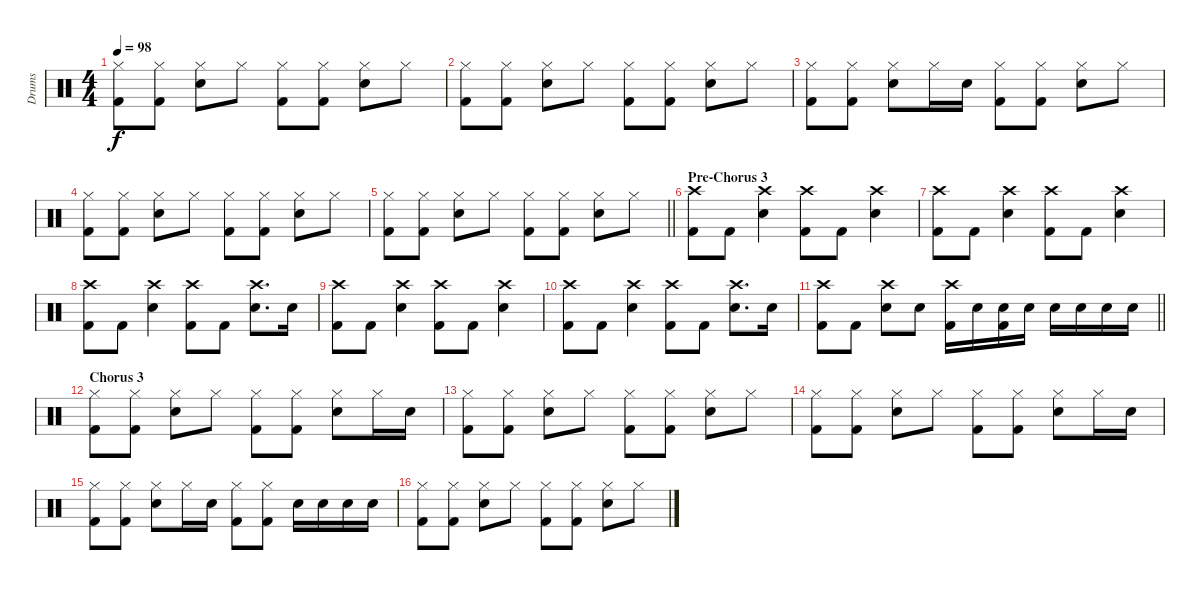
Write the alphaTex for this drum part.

\track ("Drums" "Drums") {instrument percussion}
\staff {score}
\articulation defaults
\ts (4 4)
\tempo 98
\clef neutral
\ks c
("Hi-Hat (closed)" "Kick (hit) 2").8{dy f} ("Hi-Hat (closed)" "Kick (hit) 2").8 ("Hi-Hat (closed)" "Electric Snare (hit)").8 "Hi-Hat (closed)".8 ("Hi-Hat (closed)" "Kick (hit) 2").8 ("Hi-Hat (closed)" "Kick (hit) 2").8 ("Hi-Hat (closed)" "Electric Snare (hit)").8 "Hi-Hat (closed)".8 |
("Hi-Hat (closed)" "Kick (hit) 2").8 ("Hi-Hat (closed)" "Kick (hit) 2").8 ("Hi-Hat (closed)" "Electric Snare (hit)").8 "Hi-Hat (closed)".8 ("Hi-Hat (closed)" "Kick (hit) 2").8 ("Hi-Hat (closed)" "Kick (hit) 2").8 ("Hi-Hat (closed)" "Electric Snare (hit)").8 "Hi-Hat (closed)".8 |
("Hi-Hat (closed)" "Kick (hit) 2").8 ("Hi-Hat (closed)" "Kick (hit) 2").8 ("Hi-Hat (closed)" "Electric Snare (hit)").8 "Hi-Hat (closed)".16 "Electric Snare (hit)".16 ("Hi-Hat (closed)" "Kick (hit) 2").8 ("Hi-Hat (closed)" "Kick (hit) 2").8 ("Hi-Hat (closed)" "Electric Snare (hit)").8 "Hi-Hat (closed)".8 |
("Hi-Hat (closed)" "Kick (hit) 2").8 ("Hi-Hat (closed)" "Kick (hit) 2").8 ("Hi-Hat (closed)" "Electric Snare (hit)").8 "Hi-Hat (closed)".8 ("Hi-Hat (closed)" "Kick (hit) 2").8 ("Hi-Hat (closed)" "Kick (hit) 2").8 ("Hi-Hat (closed)" "Electric Snare (hit)").8 "Hi-Hat (closed)".8 |
\barLineRight lightlight
("Hi-Hat (closed)" "Kick (hit) 2").8 ("Hi-Hat (closed)" "Kick (hit) 2").8 ("Hi-Hat (closed)" "Electric Snare (hit)").8 "Hi-Hat (closed)".8 ("Hi-Hat (closed)" "Kick (hit) 2").8 ("Hi-Hat (closed)" "Kick (hit) 2").8 ("Hi-Hat (closed)" "Electric Snare (hit)").8 "Hi-Hat (closed)".8 |
\section ("" "Pre-Chorus 3")
("Crash high (hit)" "Kick (hit) 2").8 "Kick (hit) 2".8 ("Crash high (hit)" "Electric Snare (hit)").4 ("Crash high (hit)" "Kick (hit) 2").8 "Kick (hit) 2".8 ("Crash high (hit)" "Electric Snare (hit)").4 |
("Crash high (hit)" "Kick (hit) 2").8 "Kick (hit) 2".8 ("Crash high (hit)" "Electric Snare (hit)").4 ("Crash high (hit)" "Kick (hit) 2").8 "Kick (hit) 2".8 ("Crash high (hit)" "Electric Snare (hit)").4 |
("Crash high (hit)" "Kick (hit) 2").8 "Kick (hit) 2".8 ("Crash high (hit)" "Electric Snare (hit)").4 ("Crash high (hit)" "Kick (hit) 2").8 "Kick (hit) 2".8 ("Crash high (hit)" "Electric Snare (hit)").8{d} "Electric Snare (hit)".16 |
("Crash high (hit)" "Kick (hit) 2").8 "Kick (hit) 2".8 ("Crash high (hit)" "Electric Snare (hit)").4 ("Crash high (hit)" "Kick (hit) 2").8 "Kick (hit) 2".8 ("Crash high (hit)" "Electric Snare (hit)").4 |
("Crash high (hit)" "Kick (hit) 2").8 "Kick (hit) 2".8 ("Crash high (hit)" "Electric Snare (hit)").4 ("Crash high (hit)" "Kick (hit) 2").8 "Kick (hit) 2".8 ("Crash high (hit)" "Electric Snare (hit)").8{d} "Electric Snare (hit)".16 |
\barLineRight lightlight
("Crash high (hit)" "Kick (hit) 2").8 "Kick (hit) 2".8 ("Crash high (hit)" "Electric Snare (hit)").8 "Electric Snare (hit)".8 ("Crash high (hit)" "Kick (hit) 2").16 "Electric Snare (hit)".16 ("Electric Snare (hit)" "Kick (hit) 2").16 "Electric Snare (hit)".16 "Electric Snare (hit)".16 "Electric Snare (hit)".16 "Electric Snare (hit)".16 "Electric Snare (hit)".16 |
\section ("" "Chorus 3")
("Hi-Hat (closed)" "Kick (hit) 2").8 ("Hi-Hat (closed)" "Kick (hit) 2").8 ("Hi-Hat (closed)" "Electric Snare (hit)").8 "Hi-Hat (closed)".8 ("Hi-Hat (closed)" "Kick (hit) 2").8 ("Hi-Hat (closed)" "Kick (hit) 2").8 ("Hi-Hat (closed)" "Electric Snare (hit)").8 "Hi-Hat (closed)".16 "Electric Snare (hit)".16 |
("Hi-Hat (closed)" "Kick (hit) 2").8 ("Hi-Hat (closed)" "Kick (hit) 2").8 ("Hi-Hat (closed)" "Electric Snare (hit)").8 "Hi-Hat (closed)".8 ("Hi-Hat (closed)" "Kick (hit) 2").8 ("Hi-Hat (closed)" "Kick (hit) 2").8 ("Hi-Hat (closed)" "Electric Snare (hit)").8 "Hi-Hat (closed)".8 |
("Hi-Hat (closed)" "Kick (hit) 2").8 ("Hi-Hat (closed)" "Kick (hit) 2").8 ("Hi-Hat (closed)" "Electric Snare (hit)").8 "Hi-Hat (closed)".8 ("Hi-Hat (closed)" "Kick (hit) 2").8 ("Hi-Hat (closed)" "Kick (hit) 2").8 ("Hi-Hat (closed)" "Electric Snare (hit)").8 "Hi-Hat (closed)".16 "Electric Snare (hit)".16 |
("Hi-Hat (closed)" "Kick (hit) 2").8 ("Hi-Hat (closed)" "Kick (hit) 2").8 ("Hi-Hat (closed)" "Electric Snare (hit)").8 "Hi-Hat (closed)".16 "Electric Snare (hit)".16 ("Hi-Hat (closed)" "Kick (hit) 2").8 ("Hi-Hat (closed)" "Kick (hit) 2").8 "Electric Snare (hit)".16 "Electric Snare (hit)".16 "Electric Snare (hit)".16 "Electric Snare (hit)".16 |
("Hi-Hat (closed)" "Kick (hit) 2").8 ("Hi-Hat (closed)" "Kick (hit) 2").8 ("Hi-Hat (closed)" "Electric Snare (hit)").8 "Hi-Hat (closed)".8 ("Hi-Hat (closed)" "Kick (hit) 2").8 ("Hi-Hat (closed)" "Kick (hit) 2").8 ("Hi-Hat (closed)" "Electric Snare (hit)").8 "Hi-Hat (closed)".8
